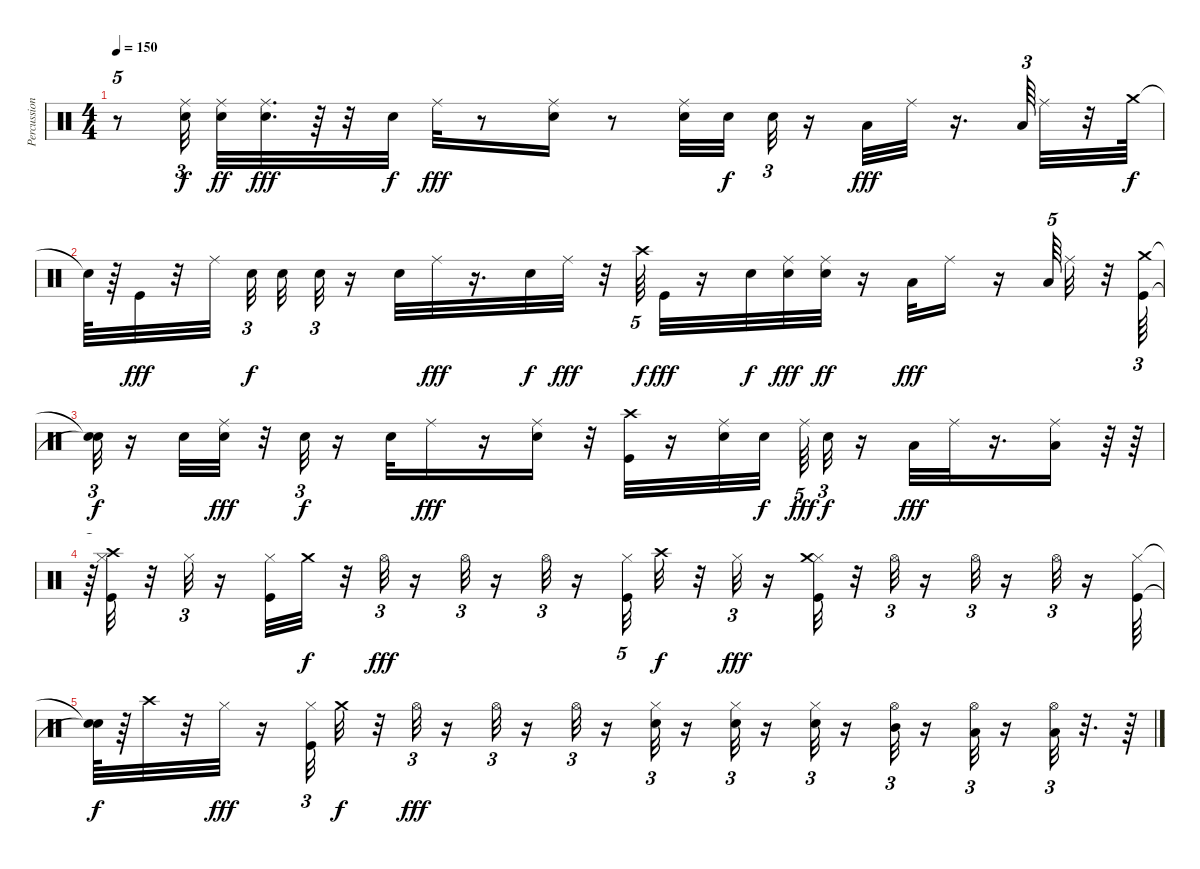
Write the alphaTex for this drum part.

\track ("Percussions" "Percussion") {instrument percussion}
\staff {score}
\articulation defaults
\ts (4 4)
\tempo 150
\clef neutral
\ks c
r.8{tu (5 4) dy fff} ("Ride (middle)" "Electric Snare (hit)").32{tu (3 2) dy f beam splitsecondary} ("Electric Snare (hit)" "Ride (middle)").32{dy ff} ("Ride (middle)" "Electric Snare (hit)").32{d dy fff} r.64 r.32 "Electric Snare (hit)".32{dy f} "Ride (middle)".32{dy fff} r.8 ("Electric Snare (hit)" "Ride (middle)").16 r.8 ("Electric Snare (hit)" "Ride (middle)").32 "Electric Snare (hit)".32{dy f beam splitsecondary} "Electric Snare (hit)".32{tu (3 2)} r.16 "Low Floor Tom (hit)".32{dy fff} "Ride (middle)".32 r.16{d} "Low Floor Tom (hit)".64{tu (3 2)} "Ride (middle)".32 r.32 "Crash medium (hit)".64{dy f} |
"Snare (hit)"{t}.64 r.64 "Kick (hit)".32{dy fff} r.32 "Ride (middle)".32{beam splitsecondary} "Electric Snare (hit)".32{tu (3 2) dy f beam splitsecondary} "Electric Snare (hit)".32 "Electric Snare (hit)".32{tu (3 2)} r.16 "Electric Snare (hit)".32 "Ride (middle)".32{dy fff} r.16{d} "Electric Snare (hit)".32{dy f} "Ride (middle)".32{dy fff} r.32 "Crash high (hit)".64{tu (5 4) dy f} "Kick (hit)".32{dy fff} r.16 "Electric Snare (hit)".32{dy f} ("Ride (middle)" "Electric Snare (hit)").32{dy fff} ("Electric Snare (hit)" "Ride (middle)").32{dy ff} r.16 "Low Tom (hit)".32{dy fff} "Ride (middle)".16 r.16 "Low Tom (hit)".64{tu (5 4)} "Ride (middle)".32 r.32 ("Kick (hit)" "Crash medium (hit)").64{tu (3 2)} |
("Snare (hit)"{t} "Snare (hit)"{t}).32{tu (3 2) dy f} r.16 "Electric Snare (hit)".32 ("Ride (middle)" "Electric Snare (hit)").32{dy fff} r.32 "Electric Snare (hit)".32{tu (3 2) dy f} r.16 "Electric Snare (hit)".32 "Ride (middle)".16{dy fff} r.16 ("Electric Snare (hit)" "Ride (middle)").16 r.32 ("Crash high (hit)" "Kick (hit)").32 r.16 ("Electric Snare (hit)" "Ride (middle)").32 "Electric Snare (hit)".32{dy f beam splitsecondary} "Ride (middle)".64{tu (5 4) dy fff} "Electric Snare (hit)".32{tu (3 2) dy f} r.16 "Low Floor Tom (hit)".32{dy fff} "Ride (middle)".32 r.16{d} ("Low Floor Tom (hit)" "Ride (middle)").16 r.64 r.64 |
r.64{tu (5 4)} ("Kick (hit)" "Hi-Hat (closed)" "Crash high (hit)").32 r.32 "Hi-Hat (closed)".32{tu (3 2)} r.16 ("Hi-Hat (closed)" "Kick (hit)").32 "Crash medium (hit)".32{dy f} r.32 "Hi-Hat (open)".32{tu (3 2) dy fff} r.16 "Hi-Hat (open)".32{tu (3 2)} r.16 "Hi-Hat (open)".32{tu (3 2)} r.16 ("Kick (hit)" "Hi-Hat (closed)").32{tu (5 4)} "Crash high (hit)".32{dy f} r.32 "Hi-Hat (closed)".32{tu (3 2) dy fff} r.16 ("Hi-Hat (closed)" "Kick (hit)" "Crash medium (hit)").32 r.32 "Hi-Hat (open)".32{tu (3 2)} r.16 "Hi-Hat (open)".32{tu (3 2)} r.16 "Hi-Hat (open)".32{tu (3 2)} r.16 ("Kick (hit)" "Hi-Hat (closed)").64 |
("Snare (hit)"{t} "Snare (hit)"{t}).64{dy f} r.64 "Crash high (hit)".32 r.32 "Hi-Hat (closed)".32{dy fff} r.16 ("Kick (hit)" "Hi-Hat (closed)").32{tu (3 2)} "Crash medium (hit)".32{dy f} r.32 "Hi-Hat (open)".32{tu (3 2) dy fff} r.16 "Hi-Hat (open)".32{tu (3 2)} r.16 "Hi-Hat (open)".32{tu (3 2)} r.16 ("Electric Snare (hit)" "Hi-Hat (closed)").32{tu (3 2)} r.16 ("Electric Snare (hit)" "Hi-Hat (closed)").32{tu (3 2)} r.16 ("Electric Snare (hit)" "Hi-Hat (closed)").32{tu (3 2)} r.16 ("Mid Tom (hit)" "Hi-Hat (open)").32{tu (3 2)} r.16 ("Low Tom (hit)" "Hi-Hat (open)").32{tu (3 2)} r.16 ("Low Floor Tom (hit)" "Hi-Hat (open)").32{tu (3 2)} r.32{d} r.64
